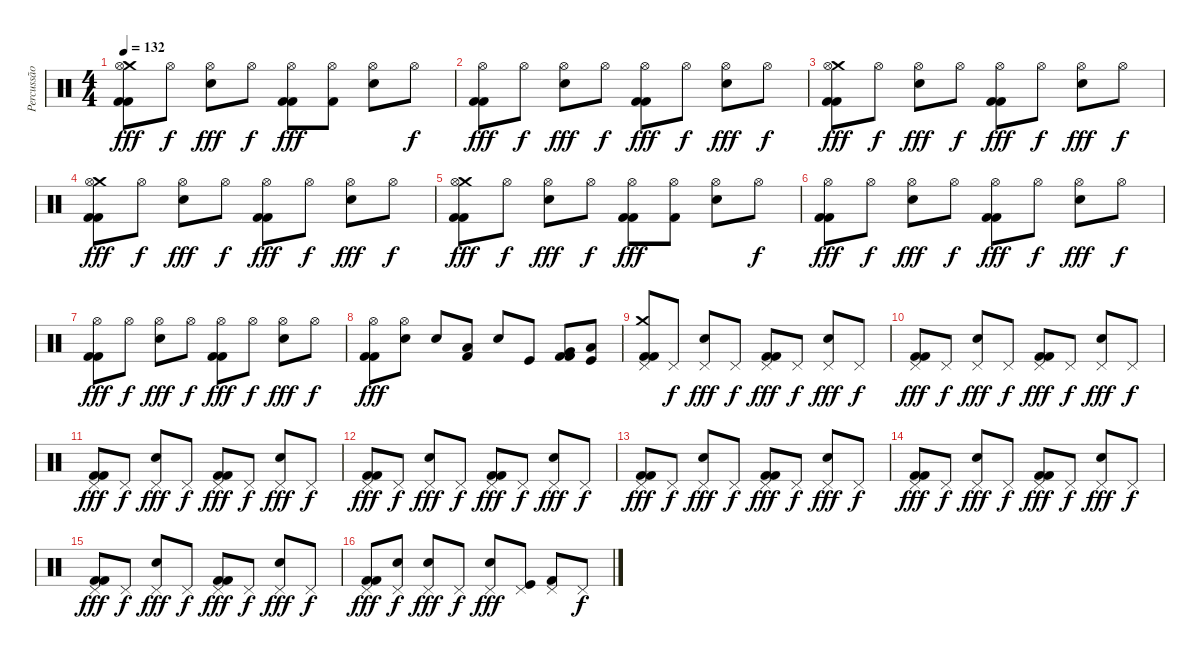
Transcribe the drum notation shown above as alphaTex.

\track ("Percussão" "Percussão") {instrument percussion}
\staff {score}
\articulation defaults
\ts (4 4)
\tempo 132
\clef neutral
\ks c
("Kick (hit) 2" "Kick (hit) 2" "Crash medium (hit)" "Hi-Hat (open)").8{dy fff} "Hi-Hat (open)".8{dy f} ("Electric Snare (hit)" "Hi-Hat (open)").8{dy fff} "Hi-Hat (open)".8{dy f} ("Kick (hit) 2" "Kick (hit) 2" "Hi-Hat (open)").8{dy fff} ("Kick (hit) 2" "Hi-Hat (open)").8 ("Electric Snare (hit)" "Hi-Hat (open)").8 "Hi-Hat (open)".8{dy f} |
("Kick (hit) 2" "Kick (hit) 2" "Hi-Hat (open)").8{dy fff} "Hi-Hat (open)".8{dy f} ("Electric Snare (hit)" "Hi-Hat (open)").8{dy fff} "Hi-Hat (open)".8{dy f} ("Kick (hit) 2" "Kick (hit) 2" "Hi-Hat (open)").8{dy fff} "Hi-Hat (open)".8{dy f} ("Electric Snare (hit)" "Hi-Hat (open)").8{dy fff} "Hi-Hat (open)".8{dy f} |
("Kick (hit) 2" "Kick (hit) 2" "Crash medium (hit)" "Hi-Hat (open)").8{dy fff} "Hi-Hat (open)".8{dy f} ("Electric Snare (hit)" "Hi-Hat (open)").8{dy fff} "Hi-Hat (open)".8{dy f} ("Kick (hit) 2" "Kick (hit) 2" "Hi-Hat (open)").8{dy fff} "Hi-Hat (open)".8{dy f} ("Electric Snare (hit)" "Hi-Hat (open)").8{dy fff} "Hi-Hat (open)".8{dy f} |
("Kick (hit) 2" "Kick (hit) 2" "Crash medium (hit)" "Hi-Hat (open)").8{dy fff} "Hi-Hat (open)".8{dy f} ("Electric Snare (hit)" "Hi-Hat (open)").8{dy fff} "Hi-Hat (open)".8{dy f} ("Kick (hit) 2" "Kick (hit) 2" "Hi-Hat (open)").8{dy fff} "Hi-Hat (open)".8{dy f} ("Electric Snare (hit)" "Hi-Hat (open)").8{dy fff} "Hi-Hat (open)".8{dy f} |
("Kick (hit) 2" "Kick (hit) 2" "Crash medium (hit)" "Hi-Hat (open)").8{dy fff} "Hi-Hat (open)".8{dy f} ("Electric Snare (hit)" "Hi-Hat (open)").8{dy fff} "Hi-Hat (open)".8{dy f} ("Kick (hit) 2" "Kick (hit) 2" "Hi-Hat (open)").8{dy fff} ("Kick (hit) 2" "Hi-Hat (open)").8 ("Electric Snare (hit)" "Hi-Hat (open)").8 "Hi-Hat (open)".8{dy f} |
("Kick (hit) 2" "Kick (hit) 2" "Hi-Hat (open)").8{dy fff} "Hi-Hat (open)".8{dy f} ("Electric Snare (hit)" "Hi-Hat (open)").8{dy fff} "Hi-Hat (open)".8{dy f} ("Kick (hit) 2" "Kick (hit) 2" "Hi-Hat (open)").8{dy fff} "Hi-Hat (open)".8{dy f} ("Electric Snare (hit)" "Hi-Hat (open)").8{dy fff} "Hi-Hat (open)".8{dy f} |
("Kick (hit) 2" "Kick (hit) 2" "Hi-Hat (open)").8{dy fff} "Hi-Hat (open)".8{dy f} ("Electric Snare (hit)" "Hi-Hat (open)").8{dy fff} "Hi-Hat (open)".8{dy f} ("Kick (hit) 2" "Kick (hit) 2" "Hi-Hat (open)").8{dy fff} "Hi-Hat (open)".8{dy f} ("Electric Snare (hit)" "Hi-Hat (open)").8{dy fff} "Hi-Hat (open)".8{dy f} |
("Kick (hit) 2" "Kick (hit) 2" "Hi-Hat (open)").8{dy fff} ("Electric Snare (hit)" "Hi-Hat (open)").8 "Electric Snare (hit)".8 ("Kick (hit) 2" "Low Floor Tom (hit)").8 "Electric Snare (hit)".8 "Kick (hit)".8 ("Kick (hit) 2" "Kick (hit) 2" "Very Low Tom (hit)").8 ("Kick (hit)" "Low Floor Tom (hit)").8 |
("Kick (hit) 2" "Kick (hit) 2" "Crash medium (hit)" "Pedal Hi-Hat (hit)").8 "Pedal Hi-Hat (hit)".8{dy f} ("Electric Snare (hit)" "Pedal Hi-Hat (hit)").8{dy fff} "Pedal Hi-Hat (hit)".8{dy f} ("Kick (hit) 2" "Kick (hit) 2" "Pedal Hi-Hat (hit)").8{dy fff} "Pedal Hi-Hat (hit)".8{dy f} ("Electric Snare (hit)" "Pedal Hi-Hat (hit)").8{dy fff} "Pedal Hi-Hat (hit)".8{dy f} |
("Kick (hit) 2" "Kick (hit) 2" "Pedal Hi-Hat (hit)").8{dy fff} "Pedal Hi-Hat (hit)".8{dy f} ("Electric Snare (hit)" "Pedal Hi-Hat (hit)").8{dy fff} "Pedal Hi-Hat (hit)".8{dy f} ("Kick (hit) 2" "Kick (hit) 2" "Pedal Hi-Hat (hit)").8{dy fff} "Pedal Hi-Hat (hit)".8{dy f} ("Electric Snare (hit)" "Pedal Hi-Hat (hit)").8{dy fff} "Pedal Hi-Hat (hit)".8{dy f} |
("Kick (hit) 2" "Kick (hit) 2" "Pedal Hi-Hat (hit)").8{dy fff} "Pedal Hi-Hat (hit)".8{dy f} ("Electric Snare (hit)" "Pedal Hi-Hat (hit)").8{dy fff} "Pedal Hi-Hat (hit)".8{dy f} ("Kick (hit) 2" "Kick (hit) 2" "Pedal Hi-Hat (hit)").8{dy fff} "Pedal Hi-Hat (hit)".8{dy f} ("Electric Snare (hit)" "Pedal Hi-Hat (hit)").8{dy fff} "Pedal Hi-Hat (hit)".8{dy f} |
("Kick (hit) 2" "Kick (hit) 2" "Pedal Hi-Hat (hit)").8{dy fff} "Pedal Hi-Hat (hit)".8{dy f} ("Electric Snare (hit)" "Pedal Hi-Hat (hit)").8{dy fff} "Pedal Hi-Hat (hit)".8{dy f} ("Kick (hit) 2" "Kick (hit) 2" "Pedal Hi-Hat (hit)").8{dy fff} "Pedal Hi-Hat (hit)".8{dy f} ("Electric Snare (hit)" "Pedal Hi-Hat (hit)").8{dy fff} "Pedal Hi-Hat (hit)".8{dy f} |
("Kick (hit) 2" "Kick (hit) 2" "Pedal Hi-Hat (hit)").8{dy fff} "Pedal Hi-Hat (hit)".8{dy f} ("Electric Snare (hit)" "Pedal Hi-Hat (hit)").8{dy fff} "Pedal Hi-Hat (hit)".8{dy f} ("Kick (hit) 2" "Kick (hit) 2" "Pedal Hi-Hat (hit)").8{dy fff} "Pedal Hi-Hat (hit)".8{dy f} ("Electric Snare (hit)" "Pedal Hi-Hat (hit)").8{dy fff} "Pedal Hi-Hat (hit)".8{dy f} |
("Kick (hit) 2" "Kick (hit) 2" "Pedal Hi-Hat (hit)").8{dy fff} "Pedal Hi-Hat (hit)".8{dy f} ("Electric Snare (hit)" "Pedal Hi-Hat (hit)").8{dy fff} "Pedal Hi-Hat (hit)".8{dy f} ("Kick (hit) 2" "Kick (hit) 2" "Pedal Hi-Hat (hit)").8{dy fff} "Pedal Hi-Hat (hit)".8{dy f} ("Electric Snare (hit)" "Pedal Hi-Hat (hit)").8{dy fff} "Pedal Hi-Hat (hit)".8{dy f} |
("Kick (hit) 2" "Kick (hit) 2" "Pedal Hi-Hat (hit)").8{dy fff} "Pedal Hi-Hat (hit)".8{dy f} ("Electric Snare (hit)" "Pedal Hi-Hat (hit)").8{dy fff} "Pedal Hi-Hat (hit)".8{dy f} ("Kick (hit) 2" "Kick (hit) 2" "Pedal Hi-Hat (hit)").8{dy fff} "Pedal Hi-Hat (hit)".8{dy f} ("Electric Snare (hit)" "Pedal Hi-Hat (hit)").8{dy fff} "Pedal Hi-Hat (hit)".8{dy f} |
("Kick (hit) 2" "Kick (hit) 2" "Pedal Hi-Hat (hit)").8{dy fff} ("Electric Snare (hit)" "Pedal Hi-Hat (hit)").8{dy f} ("Electric Snare (hit)" "Pedal Hi-Hat (hit)").8{dy fff} "Pedal Hi-Hat (hit)".8{dy f} ("Electric Snare (hit)" "Pedal Hi-Hat (hit)").8{dy fff} ("Kick (hit)" "Pedal Hi-Hat (hit)").8 ("Kick (hit) 2" "Pedal Hi-Hat (hit)").8 "Pedal Hi-Hat (hit)".8{dy f}
